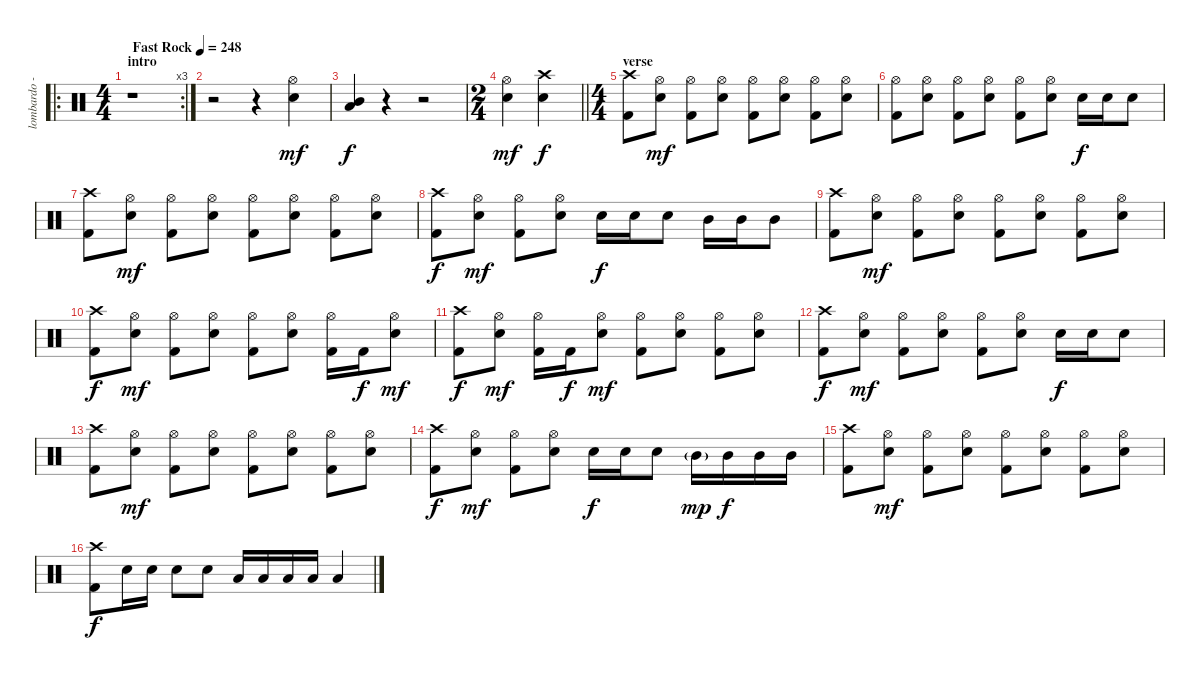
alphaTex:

\track ("lombardo - drums" "lombardo -") {instrument percussion}
\staff {score}
\articulation defaults
\ro
\rc 3
\ts (4 4)
\section ("" "intro")
\tempo (248 "Fast Rock")
\clef neutral
\ks c
r.1{dy mf} |
r.2 r.4 ("Hi-Hat (open)" "Snare (hit) 2").4 |
("Mid Tom (hit)" "Low Tom (hit)").4{dy f} r.4 r.2 |
\ts (2 4)
\barLineRight lightlight
("Hi-Hat (open)" "Snare (hit) 2").4{dy mf} ("Crash high (hit)" "Snare (hit) 2").4{dy f} |
\ts (4 4)
\section ("" "verse")
("Crash high (hit)" "Kick (hit) 2").8 ("Hi-Hat (open)" "Snare (hit) 2").8{dy mf} ("Hi-Hat (open)" "Kick (hit) 2").8 ("Hi-Hat (open)" "Snare (hit) 2").8 ("Hi-Hat (open)" "Kick (hit) 2").8 ("Hi-Hat (open)" "Snare (hit) 2").8 ("Hi-Hat (open)" "Kick (hit) 2").8 ("Hi-Hat (open)" "Snare (hit) 2").8 |
("Hi-Hat (open)" "Kick (hit) 2").8 ("Hi-Hat (open)" "Snare (hit) 2").8 ("Hi-Hat (open)" "Kick (hit) 2").8 ("Hi-Hat (open)" "Snare (hit) 2").8 ("Hi-Hat (open)" "Kick (hit) 2").8 ("Hi-Hat (open)" "Snare (hit) 2").8 "Snare (hit) 2".16{dy f} "Snare (hit) 2".16 "Snare (hit) 2".8 |
("Crash high (hit)" "Kick (hit) 2").8 ("Hi-Hat (open)" "Snare (hit) 2").8{dy mf} ("Hi-Hat (open)" "Kick (hit) 2").8 ("Hi-Hat (open)" "Snare (hit) 2").8 ("Hi-Hat (open)" "Kick (hit) 2").8 ("Hi-Hat (open)" "Snare (hit) 2").8 ("Hi-Hat (open)" "Kick (hit) 2").8 ("Hi-Hat (open)" "Snare (hit) 2").8 |
("Crash high (hit)" "Kick (hit) 2").8{dy f} ("Hi-Hat (open)" "Snare (hit) 2").8{dy mf} ("Hi-Hat (open)" "Kick (hit) 2").8 ("Hi-Hat (open)" "Snare (hit) 2").8 "Snare (hit) 2".16{dy f} "Snare (hit) 2".16 "Snare (hit) 2".8 "Mid Tom (hit)".16 "Mid Tom (hit)".16 "Mid Tom (hit)".8 |
("Crash high (hit)" "Kick (hit) 2").8 ("Hi-Hat (open)" "Snare (hit) 2").8{dy mf} ("Hi-Hat (open)" "Kick (hit) 2").8 ("Hi-Hat (open)" "Snare (hit) 2").8 ("Hi-Hat (open)" "Kick (hit) 2").8 ("Hi-Hat (open)" "Snare (hit) 2").8 ("Hi-Hat (open)" "Kick (hit) 2").8 ("Hi-Hat (open)" "Snare (hit) 2").8 |
("Crash high (hit)" "Kick (hit) 2").8{dy f} ("Hi-Hat (open)" "Snare (hit) 2").8{dy mf} ("Hi-Hat (open)" "Kick (hit) 2").8 ("Hi-Hat (open)" "Snare (hit) 2").8 ("Hi-Hat (open)" "Kick (hit) 2").8 ("Hi-Hat (open)" "Snare (hit) 2").8 ("Hi-Hat (open)" "Kick (hit) 2").16 "Kick (hit) 2".16{dy f} ("Hi-Hat (open)" "Snare (hit) 2").8{dy mf} |
("Crash high (hit)" "Kick (hit) 2").8{dy f} ("Hi-Hat (open)" "Snare (hit) 2").8{dy mf} ("Hi-Hat (open)" "Kick (hit) 2").16 "Kick (hit) 2".16{dy f} ("Hi-Hat (open)" "Snare (hit) 2").8{dy mf} ("Hi-Hat (open)" "Kick (hit) 2").8 ("Hi-Hat (open)" "Snare (hit) 2").8 ("Hi-Hat (open)" "Kick (hit) 2").8 ("Hi-Hat (open)" "Snare (hit) 2").8 |
("Crash high (hit)" "Kick (hit) 2").8{dy f} ("Hi-Hat (open)" "Snare (hit) 2").8{dy mf} ("Hi-Hat (open)" "Kick (hit) 2").8 ("Hi-Hat (open)" "Snare (hit) 2").8 ("Hi-Hat (open)" "Kick (hit) 2").8 ("Hi-Hat (open)" "Snare (hit) 2").8 "Snare (hit) 2".16{dy f} "Snare (hit) 2".16 "Snare (hit) 2".8 |
("Crash high (hit)" "Kick (hit) 2").8 ("Hi-Hat (open)" "Snare (hit) 2").8{dy mf} ("Hi-Hat (open)" "Kick (hit) 2").8 ("Hi-Hat (open)" "Snare (hit) 2").8 ("Hi-Hat (open)" "Kick (hit) 2").8 ("Hi-Hat (open)" "Snare (hit) 2").8 ("Hi-Hat (open)" "Kick (hit) 2").8 ("Hi-Hat (open)" "Snare (hit) 2").8 |
("Crash high (hit)" "Kick (hit) 2").8{dy f} ("Hi-Hat (open)" "Snare (hit) 2").8{dy mf} ("Hi-Hat (open)" "Kick (hit) 2").8 ("Hi-Hat (open)" "Snare (hit) 2").8 "Snare (hit) 2".16{dy f} "Snare (hit) 2".16 "Snare (hit) 2".8 "Mid Tom (hit)"{g}.16{dy mp} "Mid Tom (hit)".16{dy f} "Mid Tom (hit)".16 "Mid Tom (hit)".16 |
("Crash high (hit)" "Kick (hit) 2").8 ("Hi-Hat (open)" "Snare (hit) 2").8{dy mf} ("Hi-Hat (open)" "Kick (hit) 2").8 ("Hi-Hat (open)" "Snare (hit) 2").8 ("Hi-Hat (open)" "Kick (hit) 2").8 ("Hi-Hat (open)" "Snare (hit) 2").8 ("Hi-Hat (open)" "Kick (hit) 2").8 ("Hi-Hat (open)" "Snare (hit) 2").8 |
("Crash high (hit)" "Kick (hit) 2").8{dy f} "Snare (hit) 2".16 "Snare (hit) 2".16 "Snare (hit) 2".8 "Snare (hit) 2".8 "Low Tom (hit)".16 "Low Tom (hit)".16 "Low Tom (hit)".16 "Low Tom (hit)".16 "Low Tom (hit)".4
